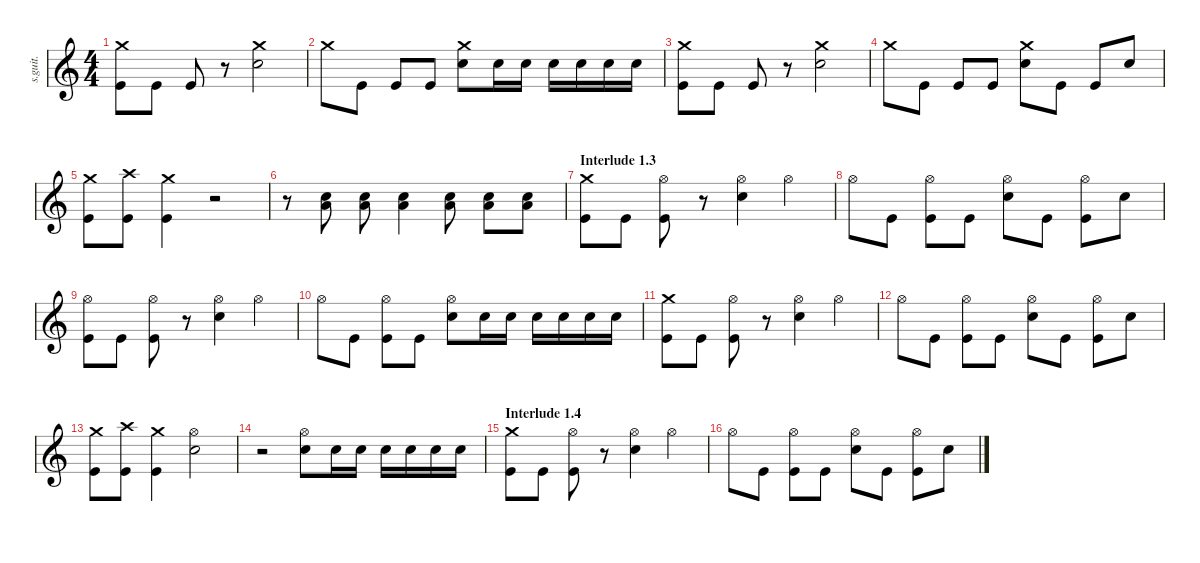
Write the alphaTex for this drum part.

\defaultSystemsLayout 4
\hideDynamics
\bracketExtendMode nobrackets
\track ("Joey Jordison" "s.guit.") {instrument percussion}
\staff {score}
\articulation defaults
\ts (4 4)
\tempo (200 hide)
\clef g2
\ks c
("Crash medium (hit)" "Kick (hit)").8{lyrics (0 "") lyrics (1 "") lyrics (2 "") lyrics (3 "") lyrics (4 "") dy ff} "Kick (hit)".8{lyrics (0 "") lyrics (1 "") lyrics (2 "") lyrics (3 "") lyrics (4 "")} "Kick (hit)".8{lyrics (0 "") lyrics (1 "") lyrics (2 "") lyrics (3 "") lyrics (4 "")} r.8 ("Crash medium (hit)" "Snare (hit) 2").2{lyrics (0 "") lyrics (1 "") lyrics (2 "") lyrics (3 "") lyrics (4 "")} |
"Crash medium (hit)".8{lyrics (0 "") lyrics (1 "") lyrics (2 "") lyrics (3 "") lyrics (4 "")} "Kick (hit)".8{lyrics (0 "") lyrics (1 "") lyrics (2 "") lyrics (3 "") lyrics (4 "")} "Kick (hit)".8{lyrics (0 "") lyrics (1 "") lyrics (2 "") lyrics (3 "") lyrics (4 "")} "Kick (hit)".8{lyrics (0 "") lyrics (1 "") lyrics (2 "") lyrics (3 "") lyrics (4 "")} ("Crash medium (hit)" "Snare (hit) 2").8{lyrics (0 "") lyrics (1 "") lyrics (2 "") lyrics (3 "") lyrics (4 "")} "Snare (hit) 2".16{lyrics (0 "") lyrics (1 "") lyrics (2 "") lyrics (3 "") lyrics (4 "")} "Snare (hit) 2".16{lyrics (0 "") lyrics (1 "") lyrics (2 "") lyrics (3 "") lyrics (4 "")} "Snare (hit) 2".16{lyrics (0 "") lyrics (1 "") lyrics (2 "") lyrics (3 "") lyrics (4 "")} "Snare (hit) 2".16{lyrics (0 "") lyrics (1 "") lyrics (2 "") lyrics (3 "") lyrics (4 "")} "Snare (hit) 2".16{lyrics (0 "") lyrics (1 "") lyrics (2 "") lyrics (3 "") lyrics (4 "")} "Snare (hit) 2".16{lyrics (0 "") lyrics (1 "") lyrics (2 "") lyrics (3 "") lyrics (4 "")} |
("Crash medium (hit)" "Kick (hit)").8{lyrics (0 "") lyrics (1 "") lyrics (2 "") lyrics (3 "") lyrics (4 "")} "Kick (hit)".8{lyrics (0 "") lyrics (1 "") lyrics (2 "") lyrics (3 "") lyrics (4 "")} "Kick (hit)".8{lyrics (0 "") lyrics (1 "") lyrics (2 "") lyrics (3 "") lyrics (4 "")} r.8 ("Crash medium (hit)" "Snare (hit) 2").2{lyrics (0 "") lyrics (1 "") lyrics (2 "") lyrics (3 "") lyrics (4 "")} |
"Crash medium (hit)".8{lyrics (0 "") lyrics (1 "") lyrics (2 "") lyrics (3 "") lyrics (4 "")} "Kick (hit)".8{lyrics (0 "") lyrics (1 "") lyrics (2 "") lyrics (3 "") lyrics (4 "")} "Kick (hit)".8{lyrics (0 "") lyrics (1 "") lyrics (2 "") lyrics (3 "") lyrics (4 "")} "Kick (hit)".8{lyrics (0 "") lyrics (1 "") lyrics (2 "") lyrics (3 "") lyrics (4 "")} ("Crash medium (hit)" "Snare (hit) 2").8{lyrics (0 "") lyrics (1 "") lyrics (2 "") lyrics (3 "") lyrics (4 "")} "Kick (hit)".8{lyrics (0 "") lyrics (1 "") lyrics (2 "") lyrics (3 "") lyrics (4 "")} "Kick (hit)".8{lyrics (0 "") lyrics (1 "") lyrics (2 "") lyrics (3 "") lyrics (4 "")} "Snare (hit) 2".8{lyrics (0 "") lyrics (1 "") lyrics (2 "") lyrics (3 "") lyrics (4 "")} |
("Crash medium (hit)" "Kick (hit)").8{lyrics (0 "") lyrics (1 "") lyrics (2 "") lyrics (3 "") lyrics (4 "")} ("Crash high (hit)" "Kick (hit)").8{lyrics (0 "") lyrics (1 "") lyrics (2 "") lyrics (3 "") lyrics (4 "")} ("Crash medium (hit)" "Kick (hit)").4{lyrics (0 "") lyrics (1 "") lyrics (2 "") lyrics (3 "") lyrics (4 "")} r.2 |
r.8 ("Snare (hit) 2" "Low Floor Tom (hit)").8{lyrics (0 "") lyrics (1 "") lyrics (2 "") lyrics (3 "") lyrics (4 "")} ("Snare (hit) 2" "Low Floor Tom (hit)").8{lyrics (0 "") lyrics (1 "") lyrics (2 "") lyrics (3 "") lyrics (4 "")} ("Snare (hit) 2" "Low Floor Tom (hit)").4{lyrics (0 "") lyrics (1 "") lyrics (2 "") lyrics (3 "") lyrics (4 "")} ("Snare (hit) 2" "Low Floor Tom (hit)").8{lyrics (0 "") lyrics (1 "") lyrics (2 "") lyrics (3 "") lyrics (4 "")} ("Snare (hit) 2" "Low Floor Tom (hit)").8{lyrics (0 "") lyrics (1 "") lyrics (2 "") lyrics (3 "") lyrics (4 "")} ("Snare (hit) 2" "Low Floor Tom (hit)").8{lyrics (0 "") lyrics (1 "") lyrics (2 "") lyrics (3 "") lyrics (4 "")} |
\section ("" "Interlude 1.3")
("Crash medium (hit)" "Kick (hit)").8{lyrics (0 "") lyrics (1 "") lyrics (2 "") lyrics (3 "") lyrics (4 "")} "Kick (hit)".8{lyrics (0 "") lyrics (1 "") lyrics (2 "") lyrics (3 "") lyrics (4 "")} ("Hi-Hat (open)" "Kick (hit)").8{lyrics (0 "") lyrics (1 "") lyrics (2 "") lyrics (3 "") lyrics (4 "")} r.8 ("Hi-Hat (open)" "Snare (hit) 2").4{lyrics (0 "") lyrics (1 "") lyrics (2 "") lyrics (3 "") lyrics (4 "")} "Hi-Hat (open)".4{lyrics (0 "") lyrics (1 "") lyrics (2 "") lyrics (3 "") lyrics (4 "")} |
"Hi-Hat (open)".8{lyrics (0 "") lyrics (1 "") lyrics (2 "") lyrics (3 "") lyrics (4 "")} "Kick (hit)".8{lyrics (0 "") lyrics (1 "") lyrics (2 "") lyrics (3 "") lyrics (4 "")} ("Hi-Hat (open)" "Kick (hit)").8{lyrics (0 "") lyrics (1 "") lyrics (2 "") lyrics (3 "") lyrics (4 "")} "Kick (hit)".8{lyrics (0 "") lyrics (1 "") lyrics (2 "") lyrics (3 "") lyrics (4 "")} ("Hi-Hat (open)" "Snare (hit) 2").8{lyrics (0 "") lyrics (1 "") lyrics (2 "") lyrics (3 "") lyrics (4 "")} "Kick (hit)".8{lyrics (0 "") lyrics (1 "") lyrics (2 "") lyrics (3 "") lyrics (4 "")} ("Hi-Hat (open)" "Kick (hit)").8{lyrics (0 "") lyrics (1 "") lyrics (2 "") lyrics (3 "") lyrics (4 "")} "Snare (hit) 2".8{lyrics (0 "") lyrics (1 "") lyrics (2 "") lyrics (3 "") lyrics (4 "")} |
("Hi-Hat (open)" "Kick (hit)").8{lyrics (0 "") lyrics (1 "") lyrics (2 "") lyrics (3 "") lyrics (4 "")} "Kick (hit)".8{lyrics (0 "") lyrics (1 "") lyrics (2 "") lyrics (3 "") lyrics (4 "")} ("Hi-Hat (open)" "Kick (hit)").8{lyrics (0 "") lyrics (1 "") lyrics (2 "") lyrics (3 "") lyrics (4 "")} r.8 ("Hi-Hat (open)" "Snare (hit) 2").4{lyrics (0 "") lyrics (1 "") lyrics (2 "") lyrics (3 "") lyrics (4 "")} "Hi-Hat (open)".4{lyrics (0 "") lyrics (1 "") lyrics (2 "") lyrics (3 "") lyrics (4 "")} |
"Hi-Hat (open)".8{lyrics (0 "") lyrics (1 "") lyrics (2 "") lyrics (3 "") lyrics (4 "")} "Kick (hit)".8{lyrics (0 "") lyrics (1 "") lyrics (2 "") lyrics (3 "") lyrics (4 "")} ("Hi-Hat (open)" "Kick (hit)").8{lyrics (0 "") lyrics (1 "") lyrics (2 "") lyrics (3 "") lyrics (4 "")} "Kick (hit)".8{lyrics (0 "") lyrics (1 "") lyrics (2 "") lyrics (3 "") lyrics (4 "")} ("Hi-Hat (open)" "Snare (hit) 2").8{lyrics (0 "") lyrics (1 "") lyrics (2 "") lyrics (3 "") lyrics (4 "")} "Snare (hit) 2".16{lyrics (0 "") lyrics (1 "") lyrics (2 "") lyrics (3 "") lyrics (4 "")} "Snare (hit) 2".16{lyrics (0 "") lyrics (1 "") lyrics (2 "") lyrics (3 "") lyrics (4 "")} "Snare (hit) 2".16{lyrics (0 "") lyrics (1 "") lyrics (2 "") lyrics (3 "") lyrics (4 "")} "Snare (hit) 2".16{lyrics (0 "") lyrics (1 "") lyrics (2 "") lyrics (3 "") lyrics (4 "")} "Snare (hit) 2".16{lyrics (0 "") lyrics (1 "") lyrics (2 "") lyrics (3 "") lyrics (4 "")} "Snare (hit) 2".16{lyrics (0 "") lyrics (1 "") lyrics (2 "") lyrics (3 "") lyrics (4 "")} |
("Crash medium (hit)" "Kick (hit)").8{lyrics (0 "") lyrics (1 "") lyrics (2 "") lyrics (3 "") lyrics (4 "")} "Kick (hit)".8{lyrics (0 "") lyrics (1 "") lyrics (2 "") lyrics (3 "") lyrics (4 "")} ("Hi-Hat (open)" "Kick (hit)").8{lyrics (0 "") lyrics (1 "") lyrics (2 "") lyrics (3 "") lyrics (4 "")} r.8 ("Hi-Hat (open)" "Snare (hit) 2").4{lyrics (0 "") lyrics (1 "") lyrics (2 "") lyrics (3 "") lyrics (4 "")} "Hi-Hat (open)".4{lyrics (0 "") lyrics (1 "") lyrics (2 "") lyrics (3 "") lyrics (4 "")} |
"Hi-Hat (open)".8{lyrics (0 "") lyrics (1 "") lyrics (2 "") lyrics (3 "") lyrics (4 "")} "Kick (hit)".8{lyrics (0 "") lyrics (1 "") lyrics (2 "") lyrics (3 "") lyrics (4 "")} ("Hi-Hat (open)" "Kick (hit)").8{lyrics (0 "") lyrics (1 "") lyrics (2 "") lyrics (3 "") lyrics (4 "")} "Kick (hit)".8{lyrics (0 "") lyrics (1 "") lyrics (2 "") lyrics (3 "") lyrics (4 "")} ("Hi-Hat (open)" "Snare (hit) 2").8{lyrics (0 "") lyrics (1 "") lyrics (2 "") lyrics (3 "") lyrics (4 "")} "Kick (hit)".8{lyrics (0 "") lyrics (1 "") lyrics (2 "") lyrics (3 "") lyrics (4 "")} ("Hi-Hat (open)" "Kick (hit)").8{lyrics (0 "") lyrics (1 "") lyrics (2 "") lyrics (3 "") lyrics (4 "")} "Snare (hit) 2".8{lyrics (0 "") lyrics (1 "") lyrics (2 "") lyrics (3 "") lyrics (4 "")} |
("Crash medium (hit)" "Kick (hit)").8{lyrics (0 "") lyrics (1 "") lyrics (2 "") lyrics (3 "") lyrics (4 "")} ("Crash high (hit)" "Kick (hit)").8{lyrics (0 "") lyrics (1 "") lyrics (2 "") lyrics (3 "") lyrics (4 "")} ("Crash medium (hit)" "Kick (hit)").4{lyrics (0 "") lyrics (1 "") lyrics (2 "") lyrics (3 "") lyrics (4 "")} ("Hi-Hat (open)" "Snare (hit) 2").2{lyrics (0 "") lyrics (1 "") lyrics (2 "") lyrics (3 "") lyrics (4 "")} |
r.2 ("Hi-Hat (open)" "Snare (hit) 2").8{lyrics (0 "") lyrics (1 "") lyrics (2 "") lyrics (3 "") lyrics (4 "")} "Snare (hit) 2".16{lyrics (0 "") lyrics (1 "") lyrics (2 "") lyrics (3 "") lyrics (4 "")} "Snare (hit) 2".16{lyrics (0 "") lyrics (1 "") lyrics (2 "") lyrics (3 "") lyrics (4 "")} "Snare (hit) 2".16{lyrics (0 "") lyrics (1 "") lyrics (2 "") lyrics (3 "") lyrics (4 "")} "Snare (hit) 2".16{lyrics (0 "") lyrics (1 "") lyrics (2 "") lyrics (3 "") lyrics (4 "")} "Snare (hit) 2".16{lyrics (0 "") lyrics (1 "") lyrics (2 "") lyrics (3 "") lyrics (4 "")} "Snare (hit) 2".16{lyrics (0 "") lyrics (1 "") lyrics (2 "") lyrics (3 "") lyrics (4 "")} |
\section ("" "Interlude 1.4")
("Crash medium (hit)" "Kick (hit)").8{lyrics (0 "") lyrics (1 "") lyrics (2 "") lyrics (3 "") lyrics (4 "")} "Kick (hit)".8{lyrics (0 "") lyrics (1 "") lyrics (2 "") lyrics (3 "") lyrics (4 "")} ("Hi-Hat (open)" "Kick (hit)").8{lyrics (0 "") lyrics (1 "") lyrics (2 "") lyrics (3 "") lyrics (4 "")} r.8 ("Hi-Hat (open)" "Snare (hit) 2").4{lyrics (0 "") lyrics (1 "") lyrics (2 "") lyrics (3 "") lyrics (4 "")} "Hi-Hat (open)".4{lyrics (0 "") lyrics (1 "") lyrics (2 "") lyrics (3 "") lyrics (4 "")} |
"Hi-Hat (open)".8{lyrics (0 "") lyrics (1 "") lyrics (2 "") lyrics (3 "") lyrics (4 "")} "Kick (hit)".8{lyrics (0 "") lyrics (1 "") lyrics (2 "") lyrics (3 "") lyrics (4 "")} ("Hi-Hat (open)" "Kick (hit)").8{lyrics (0 "") lyrics (1 "") lyrics (2 "") lyrics (3 "") lyrics (4 "")} "Kick (hit)".8{lyrics (0 "") lyrics (1 "") lyrics (2 "") lyrics (3 "") lyrics (4 "")} ("Hi-Hat (open)" "Snare (hit) 2").8{lyrics (0 "") lyrics (1 "") lyrics (2 "") lyrics (3 "") lyrics (4 "")} "Kick (hit)".8{lyrics (0 "") lyrics (1 "") lyrics (2 "") lyrics (3 "") lyrics (4 "")} ("Hi-Hat (open)" "Kick (hit)").8{lyrics (0 "") lyrics (1 "") lyrics (2 "") lyrics (3 "") lyrics (4 "")} "Snare (hit) 2".8{lyrics (0 "") lyrics (1 "") lyrics (2 "") lyrics (3 "") lyrics (4 "")}
